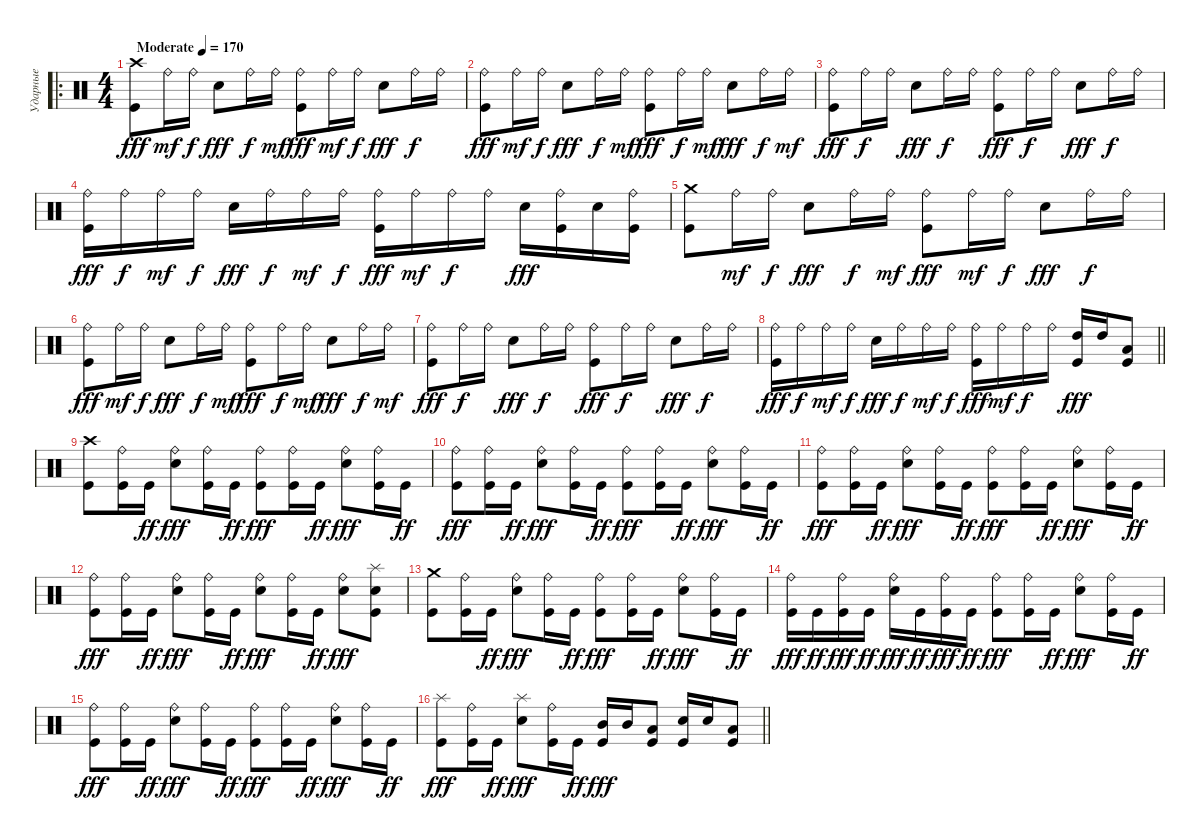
\track ("Ударные" "Ударные") {instrument percussion}
\staff {score}
\articulation defaults
\ro
\ts (4 4)
\tempo (170 "Moderate")
\clef neutral
\ks c
("Crash high (hit)" "Kick (hit)").8{dy fff} "Ride (bell)".16{dy mf} "Ride (bell)".16{dy f} "Electric Snare (hit)".8{dy fff} "Ride (bell)".16{dy f} "Ride (bell)".16{dy mf} ("Ride (bell)" "Kick (hit)").8{dy fff} "Ride (bell)".16{dy mf} "Ride (bell)".16{dy f} "Electric Snare (hit)".8{dy fff} "Ride (bell)".16{dy f} "Ride (bell)".16 |
("Ride (bell)" "Kick (hit)").8{dy fff} "Ride (bell)".16{dy mf} "Ride (bell)".16{dy f} "Electric Snare (hit)".8{dy fff} "Ride (bell)".16{dy f} "Ride (bell)".16{dy mf} ("Ride (bell)" "Kick (hit)").8{dy fff} "Ride (bell)".16{dy f} "Ride (bell)".16{dy mf} "Electric Snare (hit)".8{dy fff} "Ride (bell)".16{dy f} "Ride (bell)".16{dy mf} |
("Ride (bell)" "Kick (hit)").8{dy fff} "Ride (bell)".16{dy f} "Ride (bell)".16 "Electric Snare (hit)".8{dy fff} "Ride (bell)".16{dy f} "Ride (bell)".16 ("Ride (bell)" "Kick (hit)").8{dy fff} "Ride (bell)".16{dy f} "Ride (bell)".16 "Electric Snare (hit)".8{dy fff} "Ride (bell)".16{dy f} "Ride (bell)".16 |
("Ride (bell)" "Kick (hit)").16{dy fff} "Ride (bell)".16{dy f} "Ride (bell)".16{dy mf} "Ride (bell)".16{dy f} "Electric Snare (hit)".16{dy fff} "Ride (bell)".16{dy f} "Ride (bell)".16{dy mf} "Ride (bell)".16{dy f} ("Ride (bell)" "Kick (hit)").16{dy fff} "Ride (bell)".16{dy mf} "Ride (bell)".16{dy f} "Ride (bell)".16 "Electric Snare (hit)".16{dy fff} ("Ride (bell)" "Kick (hit)").16 "Electric Snare (hit)".16 ("Ride (bell)" "Kick (hit)").16 |
("Crash medium (hit)" "Kick (hit)").8 "Ride (bell)".16{dy mf} "Ride (bell)".16{dy f} "Electric Snare (hit)".8{dy fff} "Ride (bell)".16{dy f} "Ride (bell)".16{dy mf} ("Ride (bell)" "Kick (hit)").8{dy fff} "Ride (bell)".16{dy mf} "Ride (bell)".16{dy f} "Electric Snare (hit)".8{dy fff} "Ride (bell)".16{dy f} "Ride (bell)".16 |
("Ride (bell)" "Kick (hit)").8{dy fff} "Ride (bell)".16{dy mf} "Ride (bell)".16{dy f} "Electric Snare (hit)".8{dy fff} "Ride (bell)".16{dy f} "Ride (bell)".16{dy mf} ("Ride (bell)" "Kick (hit)").8{dy fff} "Ride (bell)".16{dy f} "Ride (bell)".16{dy mf} "Electric Snare (hit)".8{dy fff} "Ride (bell)".16{dy f} "Ride (bell)".16{dy mf} |
("Ride (bell)" "Kick (hit)").8{dy fff} "Ride (bell)".16{dy f} "Ride (bell)".16 "Electric Snare (hit)".8{dy fff} "Ride (bell)".16{dy f} "Ride (bell)".16 ("Ride (bell)" "Kick (hit)").8{dy fff} "Ride (bell)".16{dy f} "Ride (bell)".16 "Electric Snare (hit)".8{dy fff} "Ride (bell)".16{dy f} "Ride (bell)".16 |
\barLineRight lightlight
("Ride (bell)" "Kick (hit)").16{dy fff} "Ride (bell)".16{dy f} "Ride (bell)".16{dy mf} "Ride (bell)".16{dy f} "Electric Snare (hit)".16{dy fff} "Ride (bell)".16{dy f} "Ride (bell)".16{dy mf} "Ride (bell)".16{dy f} ("Ride (bell)" "Kick (hit)").16{dy fff} "Ride (bell)".16{dy mf} "Ride (bell)".16{dy f} "Ride (bell)".16 ("High Tom (hit)" "Kick (hit)").16{dy fff} "High Tom (hit)".16 ("Low Tom (hit)" "Kick (hit)").8 |
("Crash high (hit)" "Kick (hit)").8 ("Ride (bell)" "Kick (hit)").16 "Kick (hit)".16{dy ff} ("Ride (bell)" "Electric Snare (hit)").8{dy fff} ("Ride (bell)" "Kick (hit)").16 "Kick (hit)".16{dy ff} ("Ride (bell)" "Kick (hit)").8{dy fff} ("Ride (bell)" "Kick (hit)").16 "Kick (hit)".16{dy ff} ("Ride (bell)" "Electric Snare (hit)").8{dy fff} ("Ride (bell)" "Kick (hit)").16 "Kick (hit)".16{dy ff} |
("Ride (bell)" "Kick (hit)").8{dy fff} ("Ride (bell)" "Kick (hit)").16 "Kick (hit)".16{dy ff} ("Ride (bell)" "Electric Snare (hit)").8{dy fff} ("Ride (bell)" "Kick (hit)").16 "Kick (hit)".16{dy ff} ("Ride (bell)" "Kick (hit)").8{dy fff} ("Ride (bell)" "Kick (hit)").16 "Kick (hit)".16{dy ff} ("Ride (bell)" "Electric Snare (hit)").8{dy fff} ("Ride (bell)" "Kick (hit)").16 "Kick (hit)".16{dy ff} |
("Ride (bell)" "Kick (hit)").8{dy fff} ("Ride (bell)" "Kick (hit)").16 "Kick (hit)".16{dy ff} ("Ride (bell)" "Electric Snare (hit)").8{dy fff} ("Ride (bell)" "Kick (hit)").16 "Kick (hit)".16{dy ff} ("Ride (bell)" "Kick (hit)").8{dy fff} ("Ride (bell)" "Kick (hit)").16 "Kick (hit)".16{dy ff} ("Ride (bell)" "Electric Snare (hit)").8{dy fff} ("Ride (bell)" "Kick (hit)").16 "Kick (hit)".16{dy ff} |
("Ride (bell)" "Kick (hit)").8{dy fff} ("Ride (bell)" "Kick (hit)").16 "Kick (hit)".16{dy ff} ("Ride (bell)" "Electric Snare (hit)").8{dy fff} ("Ride (bell)" "Kick (hit)").16 "Kick (hit)".16{dy ff} ("Ride (bell)" "Electric Snare (hit)").8{dy fff} ("Ride (bell)" "Kick (hit)").16 "Kick (hit)".16{dy ff} ("Ride (bell)" "Electric Snare (hit)").8{dy fff} ("Splash (hit)" "Electric Snare (hit)" "Kick (hit)").8 |
("Crash medium (hit)" "Kick (hit)").8 ("Ride (bell)" "Kick (hit)").16 "Kick (hit)".16{dy ff} ("Ride (bell)" "Electric Snare (hit)").8{dy fff} ("Ride (bell)" "Kick (hit)").16 "Kick (hit)".16{dy ff} ("Ride (bell)" "Kick (hit)").8{dy fff} ("Ride (bell)" "Kick (hit)").16 "Kick (hit)".16{dy ff} ("Ride (bell)" "Electric Snare (hit)").8{dy fff} ("Ride (bell)" "Kick (hit)").16 "Kick (hit)".16{dy ff} |
("Ride (bell)" "Kick (hit)").16{dy fff} "Kick (hit)".16{dy ff} ("Ride (bell)" "Kick (hit)").16{dy fff} "Kick (hit)".16{dy ff} ("Ride (bell)" "Electric Snare (hit)").16{dy fff} "Kick (hit)".16{dy ff} ("Ride (bell)" "Kick (hit)").16{dy fff} "Kick (hit)".16{dy ff} ("Ride (bell)" "Kick (hit)").8{dy fff} ("Ride (bell)" "Kick (hit)").16 "Kick (hit)".16{dy ff} ("Ride (bell)" "Electric Snare (hit)").8{dy fff} ("Ride (bell)" "Kick (hit)").16 "Kick (hit)".16{dy ff} |
("Ride (bell)" "Kick (hit)").8{dy fff} ("Ride (bell)" "Kick (hit)").16 "Kick (hit)".16{dy ff} ("Ride (bell)" "Electric Snare (hit)").8{dy fff} ("Ride (bell)" "Kick (hit)").16 "Kick (hit)".16{dy ff} ("Ride (bell)" "Kick (hit)").8{dy fff} ("Ride (bell)" "Kick (hit)").16 "Kick (hit)".16{dy ff} ("Ride (bell)" "Electric Snare (hit)").8{dy fff} ("Ride (bell)" "Kick (hit)").16 "Kick (hit)".16{dy ff} |
\barLineRight lightlight
("Splash (hit)" "Kick (hit)").8{dy fff} ("Ride (bell)" "Kick (hit)").16 "Kick (hit)".16{dy ff} ("Splash (hit)" "Electric Snare (hit)").8{dy fff} ("Ride (bell)" "Kick (hit)").16 "Kick (hit)".16{dy ff} ("Mid Tom (hit)" "Kick (hit)").16{dy fff} "Mid Tom (hit)".16 ("Low Tom (hit)" "Kick (hit)").8 ("Electric Snare (hit)" "Kick (hit)").16 "Electric Snare (hit)".16 ("Low Tom (hit)" "Kick (hit)").8
